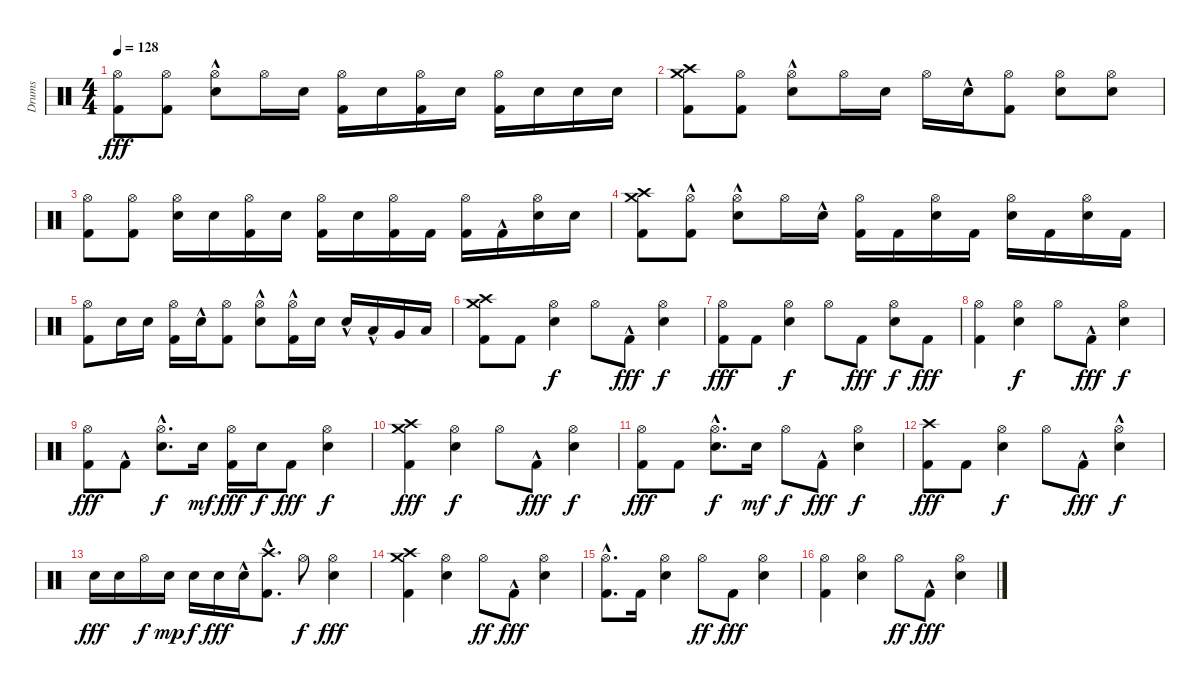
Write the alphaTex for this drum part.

\track ("Drums" "Drums") {instrument percussion}
\staff {score}
\articulation defaults
\ts (4 4)
\tempo 128
\clef neutral
\ks c
("Hi-Hat (open)" "Kick (hit) 2").8{dy fff} ("Hi-Hat (open)" "Kick (hit) 2").8 ("Hi-Hat (open)" "Snare (hit) 2"{hac}).8 "Hi-Hat (open)".16 "Snare (hit) 2".16 ("Hi-Hat (open)" "Kick (hit) 2").16 "Snare (hit) 2".16 ("Hi-Hat (open)" "Kick (hit) 2").16 "Snare (hit) 2".16 ("Hi-Hat (open)" "Kick (hit) 2").16 "Snare (hit) 2".16 "Snare (hit) 2".16 "Snare (hit) 2".16 |
("Crash high (hit)" "Crash medium (hit)" "Kick (hit) 2").8 ("Hi-Hat (open)" "Kick (hit) 2").8 ("Hi-Hat (open)" "Snare (hit) 2"{hac}).8 "Hi-Hat (open)".16 "Snare (hit) 2".16 "Hi-Hat (open)".16 "Snare (hit) 2"{hac}.16 ("Hi-Hat (open)" "Kick (hit) 2").8 ("Hi-Hat (open)" "Snare (hit) 2").8 ("Hi-Hat (open)" "Snare (hit) 2").8 |
("Hi-Hat (open)" "Kick (hit) 2").8 ("Hi-Hat (open)" "Kick (hit) 2").8 ("Hi-Hat (open)" "Snare (hit) 2").16 "Snare (hit) 2".16 ("Hi-Hat (open)" "Kick (hit) 2").16 "Snare (hit) 2".16 ("Hi-Hat (open)" "Kick (hit) 2").16 "Snare (hit) 2".16 ("Hi-Hat (open)" "Kick (hit) 2").16 "Kick (hit) 2".16 ("Hi-Hat (open)" "Kick (hit) 2").16 "Kick (hit) 2"{hac}.16 ("Hi-Hat (open)" "Snare (hit) 2").16 "Snare (hit) 2".16 |
("Crash high (hit)" "Crash medium (hit)" "Kick (hit) 2").8 ("Hi-Hat (open)" "Kick (hit) 2"{hac}).8 ("Hi-Hat (open)" "Snare (hit) 2"{hac}).8 "Hi-Hat (open)".16 "Snare (hit) 2"{hac}.16 ("Hi-Hat (open)" "Kick (hit) 2").16 "Kick (hit) 2".16 ("Hi-Hat (open)" "Snare (hit) 2").16 "Kick (hit) 2".16 ("Hi-Hat (open)" "Snare (hit) 2").16 "Kick (hit) 2".16 ("Hi-Hat (open)" "Snare (hit) 2").16 "Kick (hit) 2".16 |
("Hi-Hat (open)" "Kick (hit) 2").8 "Snare (hit) 2".16 "Snare (hit) 2".16 ("Hi-Hat (open)" "Kick (hit) 2").16 "Snare (hit) 2"{hac}.16 ("Hi-Hat (open)" "Kick (hit) 2").8 ("Hi-Hat (open)" "Snare (hit) 2"{hac}).8 ("Hi-Hat (open)"{hac} "Kick (hit) 2").16 "Snare (hit) 2".16 "Snare (hit) 2"{hac}.16 "Low Tom (hit)"{hac}.16 "Very Low Tom (hit)".16 "Low Floor Tom (hit)".16 |
("Crash high (hit)" "Crash medium (hit)" "Kick (hit) 2").8 "Kick (hit) 2".8 ("Hi-Hat (open)" "Snare (hit) 2").4{dy f} "Hi-Hat (open)".8 "Kick (hit) 2"{hac}.8{dy fff} ("Hi-Hat (open)" "Snare (hit) 2").4{dy f} |
("Hi-Hat (open)" "Kick (hit) 2").8{dy fff} "Kick (hit) 2".8 ("Hi-Hat (open)" "Snare (hit) 2").4{dy f} "Hi-Hat (open)".8 "Kick (hit) 2".8{dy fff} ("Hi-Hat (open)" "Snare (hit) 2").8{dy f} "Kick (hit) 2".8{dy fff} |
("Hi-Hat (open)" "Kick (hit) 2").4 ("Hi-Hat (open)" "Snare (hit) 2").4{dy f} "Hi-Hat (open)".8 "Kick (hit) 2"{hac}.8{dy fff} ("Hi-Hat (open)" "Snare (hit) 2").4{dy f} |
("Hi-Hat (open)" "Kick (hit) 2").8{dy fff} "Kick (hit) 2"{hac}.8 ("Hi-Hat (open)" "Snare (hit) 2"{hac}).8{d dy f} "Snare (hit) 2".16{dy mf} ("Hi-Hat (open)" "Kick (hit) 2").16{dy fff} "Snare (hit) 2".16{dy f} "Kick (hit) 2".8{dy fff} ("Hi-Hat (open)" "Snare (hit) 2").4{dy f} |
("Crash high (hit)" "Crash medium (hit)" "Kick (hit) 2").4{dy fff} ("Hi-Hat (open)" "Snare (hit) 2").4{dy f} "Hi-Hat (open)".8 "Kick (hit) 2"{hac}.8{dy fff} ("Hi-Hat (open)" "Snare (hit) 2").4{dy f} |
("Hi-Hat (open)" "Kick (hit) 2").8{dy fff} "Kick (hit) 2".8 ("Hi-Hat (open)" "Snare (hit) 2"{hac}).8{d dy f} "Snare (hit) 2".16{dy mf} "Hi-Hat (open)".8{dy f} "Kick (hit) 2"{hac}.8{dy fff} ("Hi-Hat (open)" "Snare (hit) 2").4{dy f} |
("Crash high (hit)" "Kick (hit) 2").8{dy fff} "Kick (hit) 2".8 ("Hi-Hat (open)" "Snare (hit) 2").4{dy f} "Hi-Hat (open)".8 "Kick (hit) 2"{hac}.8{dy fff} ("Hi-Hat (open)"{hac} "Snare (hit) 2").4{dy f} |
"Snare (hit) 2".16{dy fff} "Snare (hit) 2".16 "Hi-Hat (open)".16{dy f} "Snare (hit) 2".16{dy mp} "Snare (hit) 2".16{dy f} "Snare (hit) 2".16{dy fff} "Snare (hit) 2"{hac}.16 ("Crash high (hit)"{hac} "Kick (hit) 2"{hac}).8{d} "Hi-Hat (open)".8{dy f} ("Hi-Hat (open)" "Snare (hit) 2").4{dy fff} |
("Crash high (hit)" "Crash medium (hit)" "Kick (hit) 2").4 ("Hi-Hat (open)" "Snare (hit) 2").4 "Hi-Hat (open)".8{dy ff} "Kick (hit) 2"{hac}.8{dy fff} ("Hi-Hat (open)" "Snare (hit) 2").4 |
("Hi-Hat (open)" "Kick (hit) 2"{hac}).8{d} "Kick (hit) 2".16 ("Hi-Hat (open)" "Snare (hit) 2").4 "Hi-Hat (open)".8{dy ff} "Kick (hit) 2".8{dy fff} ("Hi-Hat (open)" "Snare (hit) 2").4 |
("Hi-Hat (open)" "Kick (hit) 2").4 ("Hi-Hat (open)" "Snare (hit) 2").4 "Hi-Hat (open)".8{dy ff} "Kick (hit) 2"{hac}.8{dy fff} ("Hi-Hat (open)" "Snare (hit) 2").4
